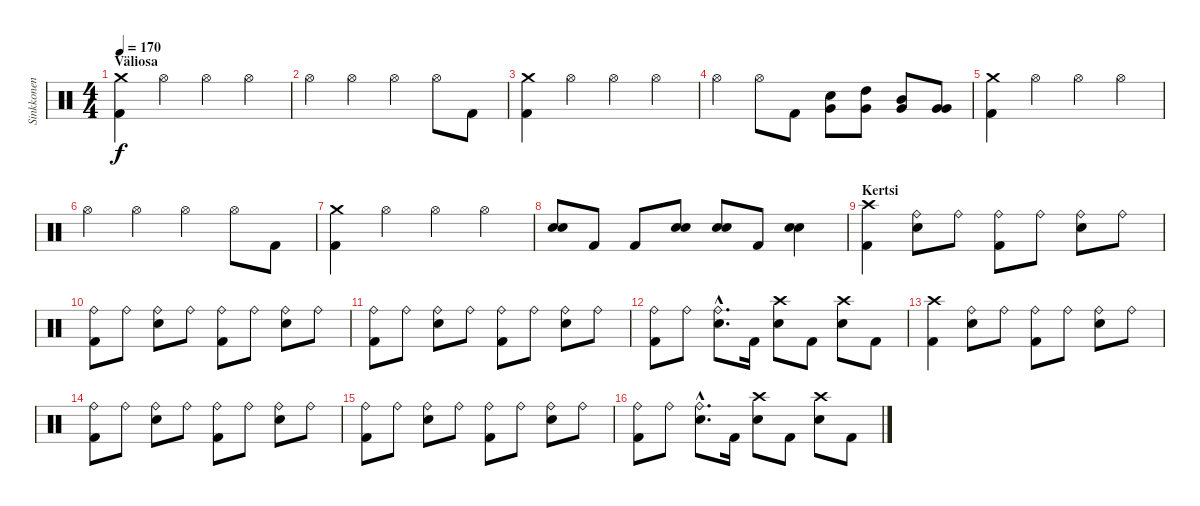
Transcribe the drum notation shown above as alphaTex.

\track ("Sinkkonen" "Sinkkonen") {instrument percussion}
\staff {score}
\articulation defaults
\ts (4 4)
\section ("" "Väliosa")
\tempo 170
\clef neutral
\ks c
("Crash medium (hit)" "Kick (hit) 2").4{dy f} "Hi-Hat (open)".4 "Hi-Hat (open)".4 "Hi-Hat (open)".4 |
"Hi-Hat (open)".4 "Hi-Hat (open)".4 "Hi-Hat (open)".4 "Hi-Hat (open)".8 "Kick (hit) 2".8 |
("Crash medium (hit)" "Kick (hit) 2").4 "Hi-Hat (open)".4 "Hi-Hat (open)".4 "Hi-Hat (open)".4 |
"Hi-Hat (open)".4 "Hi-Hat (open)".8 "Kick (hit) 2".8 ("Electric Snare (hit)" "Very Low Tom (hit)").8 ("High Tom (hit)" "Very Low Tom (hit)").8 ("Mid Tom (hit)" "Very Low Tom (hit)").8 ("Very Low Tom (hit)" "Very Low Tom (hit)").8 |
("Crash medium (hit)" "Kick (hit) 2").4 "Hi-Hat (open)".4 "Hi-Hat (open)".4 "Hi-Hat (open)".4 |
"Hi-Hat (open)".4 "Hi-Hat (open)".4 "Hi-Hat (open)".4 "Hi-Hat (open)".8 "Kick (hit) 2".8 |
("Crash medium (hit)" "Kick (hit) 2").4 "Hi-Hat (open)".4 "Hi-Hat (open)".4 "Hi-Hat (open)".4 |
("Electric Snare (hit)" "Electric Snare (hit)").8 "Kick (hit) 2".8 "Kick (hit) 2".8 ("Electric Snare (hit)" "Electric Snare (hit)").8 ("Electric Snare (hit)" "Electric Snare (hit)").8 "Kick (hit) 2".8 ("Electric Snare (hit)" "Electric Snare (hit)").4 |
\section ("" "Kertsi")
("Crash high (hit)" "Kick (hit) 2").4 ("Ride (bell)" "Electric Snare (hit)").8 "Ride (bell)".8 ("Ride (bell)" "Kick (hit) 2").8 "Ride (bell)".8 ("Ride (bell)" "Electric Snare (hit)").8 "Ride (bell)".8 |
("Ride (bell)" "Kick (hit) 2").8 "Ride (bell)".8 ("Ride (bell)" "Electric Snare (hit)").8 "Ride (bell)".8 ("Ride (bell)" "Kick (hit) 2").8 "Ride (bell)".8 ("Ride (bell)" "Electric Snare (hit)").8 "Ride (bell)".8 |
("Ride (bell)" "Kick (hit) 2").8 "Ride (bell)".8 ("Ride (bell)" "Electric Snare (hit)").8 "Ride (bell)".8 ("Ride (bell)" "Kick (hit) 2").8 "Ride (bell)".8 ("Ride (bell)" "Electric Snare (hit)").8 "Ride (bell)".8 |
("Ride (bell)" "Kick (hit) 2").8 "Ride (bell)".8 ("Ride (bell)"{hac} "Electric Snare (hit)"{hac}).8{d} "Kick (hit) 2".16 ("Crash high (hit)" "Electric Snare (hit)").8 "Kick (hit) 2".8 ("Crash high (hit)" "Electric Snare (hit)").8 "Kick (hit) 2".8 |
("Crash high (hit)" "Kick (hit) 2").4 ("Ride (bell)" "Electric Snare (hit)").8 "Ride (bell)".8 ("Ride (bell)" "Kick (hit) 2").8 "Ride (bell)".8 ("Ride (bell)" "Electric Snare (hit)").8 "Ride (bell)".8 |
("Ride (bell)" "Kick (hit) 2").8 "Ride (bell)".8 ("Ride (bell)" "Electric Snare (hit)").8 "Ride (bell)".8 ("Ride (bell)" "Kick (hit) 2").8 "Ride (bell)".8 ("Ride (bell)" "Electric Snare (hit)").8 "Ride (bell)".8 |
("Ride (bell)" "Kick (hit) 2").8 "Ride (bell)".8 ("Ride (bell)" "Electric Snare (hit)").8 "Ride (bell)".8 ("Ride (bell)" "Kick (hit) 2").8 "Ride (bell)".8 ("Ride (bell)" "Electric Snare (hit)").8 "Ride (bell)".8 |
("Ride (bell)" "Kick (hit) 2").8 "Ride (bell)".8 ("Ride (bell)"{hac} "Electric Snare (hit)"{hac}).8{d} "Kick (hit) 2".16 ("Crash high (hit)" "Electric Snare (hit)").8 "Kick (hit) 2".8 ("Crash high (hit)" "Electric Snare (hit)").8 "Kick (hit) 2".8
